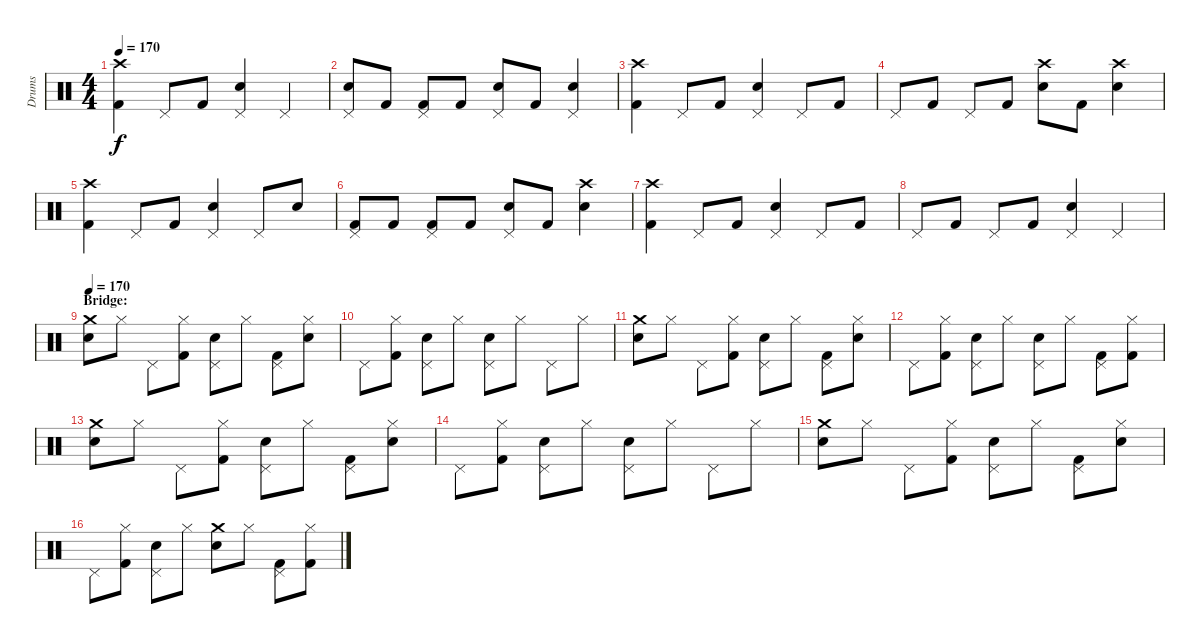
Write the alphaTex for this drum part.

\track ("Drums" "Drums") {instrument percussion}
\staff {score}
\articulation defaults
\ts (4 4)
\tempo 170
\clef neutral
\ks c
("Crash high (hit)" "Kick (hit) 2").4{dy f} "Pedal Hi-Hat (hit)".8 "Kick (hit) 2".8 ("Pedal Hi-Hat (hit)" "Snare (hit) 2").4 "Pedal Hi-Hat (hit)".4 |
("Pedal Hi-Hat (hit)" "Snare (hit) 2").8 "Kick (hit) 2".8 ("Pedal Hi-Hat (hit)" "Kick (hit) 2").8 "Kick (hit) 2".8 ("Pedal Hi-Hat (hit)" "Snare (hit) 2").8 "Kick (hit) 2".8 ("Pedal Hi-Hat (hit)" "Snare (hit) 2").4 |
("Crash high (hit)" "Kick (hit) 2").4 "Pedal Hi-Hat (hit)".8 "Kick (hit) 2".8 ("Pedal Hi-Hat (hit)" "Snare (hit) 2").4 "Pedal Hi-Hat (hit)".8 "Kick (hit) 2".8 |
"Pedal Hi-Hat (hit)".8 "Kick (hit) 2".8 "Pedal Hi-Hat (hit)".8 "Kick (hit) 2".8 ("Crash high (hit)" "Snare (hit) 2").8 "Kick (hit) 2".8 ("Crash high (hit)" "Snare (hit) 2").4 |
("Crash high (hit)" "Kick (hit) 2").4 "Pedal Hi-Hat (hit)".8 "Kick (hit) 2".8 ("Pedal Hi-Hat (hit)" "Snare (hit) 2").4 "Pedal Hi-Hat (hit)".8 "Snare (hit) 2".8 |
("Pedal Hi-Hat (hit)" "Kick (hit) 2").8 "Kick (hit) 2".8 ("Pedal Hi-Hat (hit)" "Kick (hit) 2").8 "Kick (hit) 2".8 ("Pedal Hi-Hat (hit)" "Snare (hit) 2").8 "Kick (hit) 2".8 ("Crash high (hit)" "Snare (hit) 2").4 |
("Crash high (hit)" "Kick (hit) 2").4 "Pedal Hi-Hat (hit)".8 "Kick (hit) 2".8 ("Pedal Hi-Hat (hit)" "Snare (hit) 2").4 "Pedal Hi-Hat (hit)".8 "Kick (hit) 2".8 |
"Pedal Hi-Hat (hit)".8 "Kick (hit) 2".8 "Pedal Hi-Hat (hit)".8 "Kick (hit) 2".8 ("Pedal Hi-Hat (hit)" "Snare (hit) 2").4 "Pedal Hi-Hat (hit)".4 |
\section ("" "Bridge:")
\tempo 170
("Crash medium (hit)" "Electric Snare (hit)").8 "Hi-Hat (closed)".8 "Pedal Hi-Hat (hit)".8 ("Hi-Hat (closed)" "Kick (hit) 2").8 ("Pedal Hi-Hat (hit)" "Electric Snare (hit)").8 "Hi-Hat (closed)".8 ("Pedal Hi-Hat (hit)" "Kick (hit) 2").8 ("Hi-Hat (closed)" "Electric Snare (hit)").8 |
"Pedal Hi-Hat (hit)".8 ("Hi-Hat (closed)" "Kick (hit) 2").8 ("Pedal Hi-Hat (hit)" "Electric Snare (hit)").8 "Hi-Hat (closed)".8 ("Pedal Hi-Hat (hit)" "Electric Snare (hit)").8 "Hi-Hat (closed)".8 "Pedal Hi-Hat (hit)".8 "Hi-Hat (closed)".8 |
("Crash medium (hit)" "Electric Snare (hit)").8 "Hi-Hat (closed)".8 "Pedal Hi-Hat (hit)".8 ("Hi-Hat (closed)" "Kick (hit) 2").8 ("Pedal Hi-Hat (hit)" "Electric Snare (hit)").8 "Hi-Hat (closed)".8 ("Pedal Hi-Hat (hit)" "Kick (hit) 2").8 ("Hi-Hat (closed)" "Electric Snare (hit)").8 |
"Pedal Hi-Hat (hit)".8 ("Hi-Hat (closed)" "Kick (hit) 2").8 ("Pedal Hi-Hat (hit)" "Electric Snare (hit)").8 "Hi-Hat (closed)".8 ("Pedal Hi-Hat (hit)" "Electric Snare (hit)").8 "Hi-Hat (closed)".8 ("Pedal Hi-Hat (hit)" "Kick (hit) 2").8 ("Hi-Hat (closed)" "Kick (hit) 2").8 |
("Crash medium (hit)" "Electric Snare (hit)").8 "Hi-Hat (closed)".8 "Pedal Hi-Hat (hit)".8 ("Hi-Hat (closed)" "Kick (hit) 2").8 ("Pedal Hi-Hat (hit)" "Electric Snare (hit)").8 "Hi-Hat (closed)".8 ("Pedal Hi-Hat (hit)" "Kick (hit) 2").8 ("Hi-Hat (closed)" "Electric Snare (hit)").8 |
"Pedal Hi-Hat (hit)".8 ("Hi-Hat (closed)" "Kick (hit) 2").8 ("Pedal Hi-Hat (hit)" "Electric Snare (hit)").8 "Hi-Hat (closed)".8 ("Pedal Hi-Hat (hit)" "Electric Snare (hit)").8 "Hi-Hat (closed)".8 "Pedal Hi-Hat (hit)".8 "Hi-Hat (closed)".8 |
("Crash medium (hit)" "Electric Snare (hit)").8 "Hi-Hat (closed)".8 "Pedal Hi-Hat (hit)".8 ("Hi-Hat (closed)" "Kick (hit) 2").8 ("Pedal Hi-Hat (hit)" "Electric Snare (hit)").8 "Hi-Hat (closed)".8 ("Pedal Hi-Hat (hit)" "Kick (hit) 2").8 ("Hi-Hat (closed)" "Electric Snare (hit)").8 |
"Pedal Hi-Hat (hit)".8 ("Hi-Hat (closed)" "Kick (hit) 2").8 ("Pedal Hi-Hat (hit)" "Electric Snare (hit)").8 "Hi-Hat (closed)".8 ("Crash medium (hit)" "Electric Snare (hit)").8 "Hi-Hat (closed)".8 ("Pedal Hi-Hat (hit)" "Kick (hit) 2").8 ("Hi-Hat (closed)" "Kick (hit) 2").8
